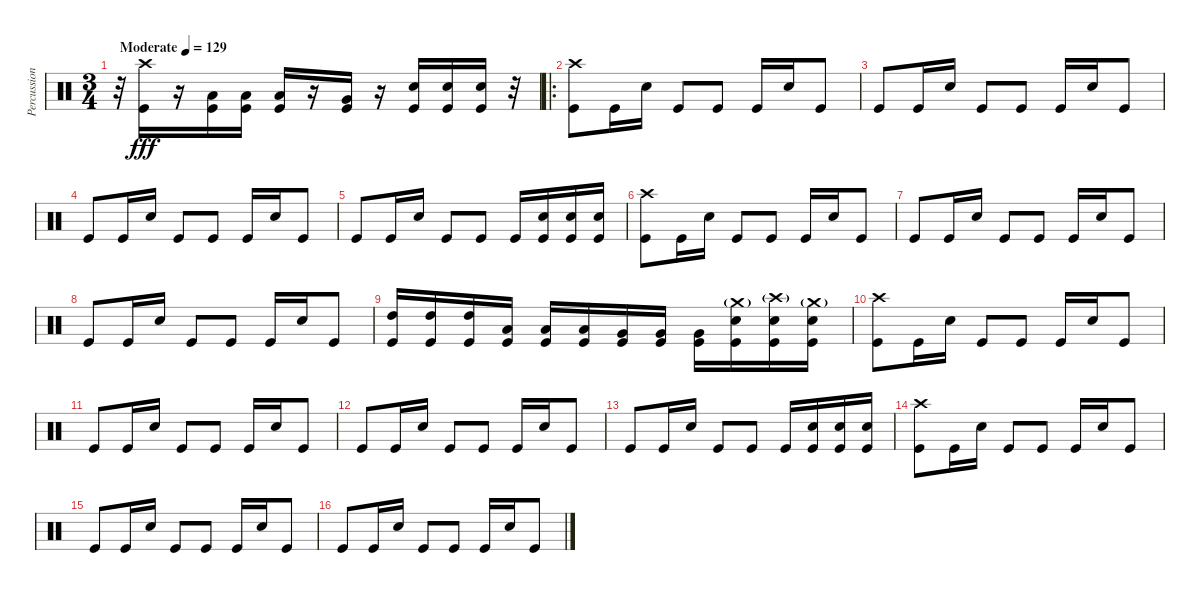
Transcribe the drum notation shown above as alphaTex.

\track ("Percussion" "Percussion") {instrument percussion}
\staff {score}
\articulation defaults
\ts (3 4)
\tempo (129 "Moderate")
\clef neutral
\ks c
r.32{dy fff} ("Crash high (hit)" "Kick (hit)").16 r.16 ("Low Tom (hit)" "Kick (hit)").16 ("Low Tom (hit)" "Kick (hit)").16 ("Low Tom (hit)" "Kick (hit)").16 r.16 ("Very Low Tom (hit)" "Kick (hit)").16 r.16 ("Snare (hit) 2" "Kick (hit)").16 ("Snare (hit) 2" "Kick (hit)").16 ("Snare (hit) 2" "Kick (hit)").16 r.32 |
\ro
("Crash high (hit)" "Kick (hit)").8 "Kick (hit)".16 "Snare (hit) 2".16 "Kick (hit)".8 "Kick (hit)".8 "Kick (hit)".16 "Snare (hit) 2".16 "Kick (hit)".8 |
"Kick (hit)".8 "Kick (hit)".16 "Snare (hit) 2".16 "Kick (hit)".8 "Kick (hit)".8 "Kick (hit)".16 "Snare (hit) 2".16 "Kick (hit)".8 |
"Kick (hit)".8 "Kick (hit)".16 "Snare (hit) 2".16 "Kick (hit)".8 "Kick (hit)".8 "Kick (hit)".16 "Snare (hit) 2".16 "Kick (hit)".8 |
"Kick (hit)".8 "Kick (hit)".16 "Snare (hit) 2".16 "Kick (hit)".8 "Kick (hit)".8 "Kick (hit)".16 ("Snare (hit) 2" "Kick (hit)").16 ("Snare (hit) 2" "Kick (hit)").16 ("Snare (hit) 2" "Kick (hit)").16 |
("Crash high (hit)" "Kick (hit)").8 "Kick (hit)".16 "Snare (hit) 2".16 "Kick (hit)".8 "Kick (hit)".8 "Kick (hit)".16 "Snare (hit) 2".16 "Kick (hit)".8 |
"Kick (hit)".8 "Kick (hit)".16 "Snare (hit) 2".16 "Kick (hit)".8 "Kick (hit)".8 "Kick (hit)".16 "Snare (hit) 2".16 "Kick (hit)".8 |
"Kick (hit)".8 "Kick (hit)".16 "Snare (hit) 2".16 "Kick (hit)".8 "Kick (hit)".8 "Kick (hit)".16 "Snare (hit) 2".16 "Kick (hit)".8 |
("High Tom (hit)" "Kick (hit)").16 ("High Tom (hit)" "Kick (hit)").16 ("High Tom (hit)" "Kick (hit)").16 ("Low Tom (hit)" "Kick (hit)").16 ("Low Tom (hit)" "Kick (hit)").16 ("Low Tom (hit)" "Kick (hit)").16 ("Very Low Tom (hit)" "Kick (hit)").16 ("Very Low Tom (hit)" "Kick (hit)").16 ("Very Low Tom (hit)" "Kick (hit)").16 ("Snare (hit) 2" "Crash medium (hit)"{g} "Kick (hit)").16 ("Snare (hit) 2" "Crash high (hit)"{g} "Kick (hit)").16 ("Snare (hit) 2" "Crash medium (hit)"{g} "Kick (hit)").16 |
("Crash high (hit)" "Kick (hit)").8 "Kick (hit)".16 "Snare (hit) 2".16 "Kick (hit)".8 "Kick (hit)".8 "Kick (hit)".16 "Snare (hit) 2".16 "Kick (hit)".8 |
"Kick (hit)".8 "Kick (hit)".16 "Snare (hit) 2".16 "Kick (hit)".8 "Kick (hit)".8 "Kick (hit)".16 "Snare (hit) 2".16 "Kick (hit)".8 |
"Kick (hit)".8 "Kick (hit)".16 "Snare (hit) 2".16 "Kick (hit)".8 "Kick (hit)".8 "Kick (hit)".16 "Snare (hit) 2".16 "Kick (hit)".8 |
"Kick (hit)".8 "Kick (hit)".16 "Snare (hit) 2".16 "Kick (hit)".8 "Kick (hit)".8 "Kick (hit)".16 ("Snare (hit) 2" "Kick (hit)").16 ("Snare (hit) 2" "Kick (hit)").16 ("Snare (hit) 2" "Kick (hit)").16 |
("Crash high (hit)" "Kick (hit)").8 "Kick (hit)".16 "Snare (hit) 2".16 "Kick (hit)".8 "Kick (hit)".8 "Kick (hit)".16 "Snare (hit) 2".16 "Kick (hit)".8 |
"Kick (hit)".8 "Kick (hit)".16 "Snare (hit) 2".16 "Kick (hit)".8 "Kick (hit)".8 "Kick (hit)".16 "Snare (hit) 2".16 "Kick (hit)".8 |
"Kick (hit)".8 "Kick (hit)".16 "Snare (hit) 2".16 "Kick (hit)".8 "Kick (hit)".8 "Kick (hit)".16 "Snare (hit) 2".16 "Kick (hit)".8
